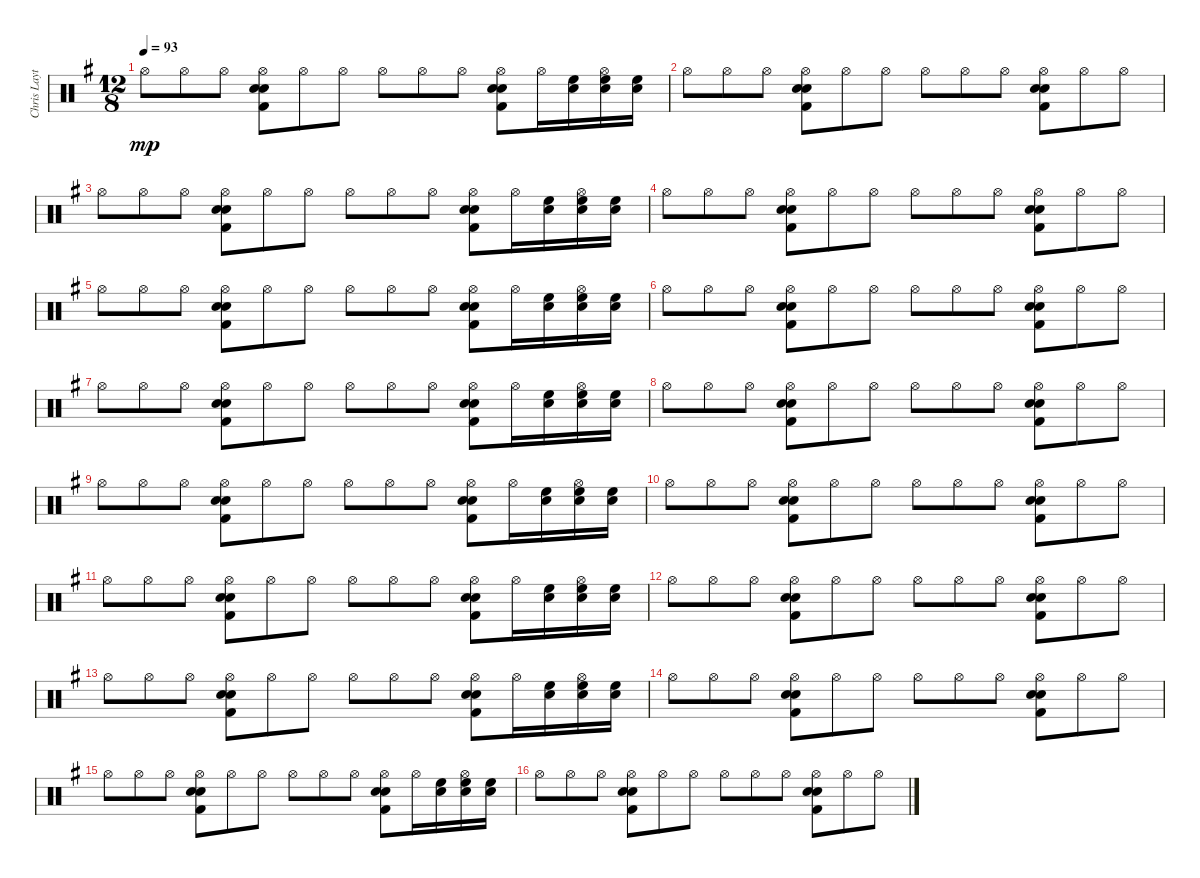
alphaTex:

\track ("Chris Layton" "Chris Layt") {instrument percussion}
\staff {score}
\articulation defaults
\ts (12 8)
\tempo 93
\clef neutral
\ks g "Hi-Hat (open)".8{dy mp} "Hi-Hat (open)".8 "Hi-Hat (open)".8
("Electric Snare (hit)" "Electric Snare (hit)" "Kick (hit) 2" "Hi-Hat (open)").8 "Hi-Hat (open)".8 "Hi-Hat (open)".8 "Hi-Hat (open)".8 "Hi-Hat (open)".8 "Hi-Hat (open)".8 ("Kick (hit) 2" "Electric Snare (hit)" "Electric Snare (hit)" "Hi-Hat (open)").8 "Hi-Hat (open)".16 ("Electric Snare (hit)" "High Floor Tom (hit)").16 ("Electric Snare (hit)" "High Floor Tom (hit)" "Hi-Hat (open)").16 ("Electric Snare (hit)" "High Floor Tom (hit)").16 |
"Hi-Hat (open)".8 "Hi-Hat (open)".8 "Hi-Hat (open)".8 ("Electric Snare (hit)" "Electric Snare (hit)" "Kick (hit) 2" "Hi-Hat (open)").8 "Hi-Hat (open)".8 "Hi-Hat (open)".8 "Hi-Hat (open)".8 "Hi-Hat (open)".8 "Hi-Hat (open)".8 ("Kick (hit) 2" "Electric Snare (hit)" "Electric Snare (hit)" "Hi-Hat (open)").8 "Hi-Hat (open)".8 "Hi-Hat (open)".8 |
"Hi-Hat (open)".8 "Hi-Hat (open)".8 "Hi-Hat (open)".8 ("Electric Snare (hit)" "Electric Snare (hit)" "Kick (hit) 2" "Hi-Hat (open)").8 "Hi-Hat (open)".8 "Hi-Hat (open)".8 "Hi-Hat (open)".8 "Hi-Hat (open)".8 "Hi-Hat (open)".8 ("Kick (hit) 2" "Electric Snare (hit)" "Electric Snare (hit)" "Hi-Hat (open)").8 "Hi-Hat (open)".16 ("Electric Snare (hit)" "High Floor Tom (hit)").16 ("Electric Snare (hit)" "High Floor Tom (hit)" "Hi-Hat (open)").16 ("Electric Snare (hit)" "High Floor Tom (hit)").16 |
"Hi-Hat (open)".8 "Hi-Hat (open)".8 "Hi-Hat (open)".8 ("Electric Snare (hit)" "Electric Snare (hit)" "Kick (hit) 2" "Hi-Hat (open)").8 "Hi-Hat (open)".8 "Hi-Hat (open)".8 "Hi-Hat (open)".8 "Hi-Hat (open)".8 "Hi-Hat (open)".8 ("Kick (hit) 2" "Electric Snare (hit)" "Electric Snare (hit)" "Hi-Hat (open)").8 "Hi-Hat (open)".8 "Hi-Hat (open)".8 |
"Hi-Hat (open)".8 "Hi-Hat (open)".8 "Hi-Hat (open)".8 ("Electric Snare (hit)" "Electric Snare (hit)" "Kick (hit) 2" "Hi-Hat (open)").8 "Hi-Hat (open)".8 "Hi-Hat (open)".8 "Hi-Hat (open)".8 "Hi-Hat (open)".8 "Hi-Hat (open)".8 ("Kick (hit) 2" "Electric Snare (hit)" "Electric Snare (hit)" "Hi-Hat (open)").8 "Hi-Hat (open)".16 ("Electric Snare (hit)" "High Floor Tom (hit)").16 ("Electric Snare (hit)" "High Floor Tom (hit)" "Hi-Hat (open)").16 ("Electric Snare (hit)" "High Floor Tom (hit)").16 |
"Hi-Hat (open)".8 "Hi-Hat (open)".8 "Hi-Hat (open)".8 ("Electric Snare (hit)" "Electric Snare (hit)" "Kick (hit) 2" "Hi-Hat (open)").8 "Hi-Hat (open)".8 "Hi-Hat (open)".8 "Hi-Hat (open)".8 "Hi-Hat (open)".8 "Hi-Hat (open)".8 ("Kick (hit) 2" "Electric Snare (hit)" "Electric Snare (hit)" "Hi-Hat (open)").8 "Hi-Hat (open)".8 "Hi-Hat (open)".8 |
"Hi-Hat (open)".8 "Hi-Hat (open)".8 "Hi-Hat (open)".8 ("Electric Snare (hit)" "Electric Snare (hit)" "Kick (hit) 2" "Hi-Hat (open)").8 "Hi-Hat (open)".8 "Hi-Hat (open)".8 "Hi-Hat (open)".8 "Hi-Hat (open)".8 "Hi-Hat (open)".8 ("Kick (hit) 2" "Electric Snare (hit)" "Electric Snare (hit)" "Hi-Hat (open)").8 "Hi-Hat (open)".16 ("Electric Snare (hit)" "High Floor Tom (hit)").16 ("Electric Snare (hit)" "High Floor Tom (hit)" "Hi-Hat (open)").16 ("Electric Snare (hit)" "High Floor Tom (hit)").16 |
"Hi-Hat (open)".8 "Hi-Hat (open)".8 "Hi-Hat (open)".8 ("Electric Snare (hit)" "Electric Snare (hit)" "Kick (hit) 2" "Hi-Hat (open)").8 "Hi-Hat (open)".8 "Hi-Hat (open)".8 "Hi-Hat (open)".8 "Hi-Hat (open)".8 "Hi-Hat (open)".8 ("Kick (hit) 2" "Electric Snare (hit)" "Electric Snare (hit)" "Hi-Hat (open)").8 "Hi-Hat (open)".8 "Hi-Hat (open)".8 |
"Hi-Hat (open)".8 "Hi-Hat (open)".8 "Hi-Hat (open)".8 ("Electric Snare (hit)" "Electric Snare (hit)" "Kick (hit) 2" "Hi-Hat (open)").8 "Hi-Hat (open)".8 "Hi-Hat (open)".8 "Hi-Hat (open)".8 "Hi-Hat (open)".8 "Hi-Hat (open)".8 ("Kick (hit) 2" "Electric Snare (hit)" "Electric Snare (hit)" "Hi-Hat (open)").8 "Hi-Hat (open)".16 ("Electric Snare (hit)" "High Floor Tom (hit)").16 ("Electric Snare (hit)" "High Floor Tom (hit)" "Hi-Hat (open)").16 ("Electric Snare (hit)" "High Floor Tom (hit)").16 |
"Hi-Hat (open)".8 "Hi-Hat (open)".8 "Hi-Hat (open)".8 ("Electric Snare (hit)" "Electric Snare (hit)" "Kick (hit) 2" "Hi-Hat (open)").8 "Hi-Hat (open)".8 "Hi-Hat (open)".8 "Hi-Hat (open)".8 "Hi-Hat (open)".8 "Hi-Hat (open)".8 ("Kick (hit) 2" "Electric Snare (hit)" "Electric Snare (hit)" "Hi-Hat (open)").8 "Hi-Hat (open)".8 "Hi-Hat (open)".8 |
"Hi-Hat (open)".8 "Hi-Hat (open)".8 "Hi-Hat (open)".8 ("Electric Snare (hit)" "Electric Snare (hit)" "Kick (hit) 2" "Hi-Hat (open)").8 "Hi-Hat (open)".8 "Hi-Hat (open)".8 "Hi-Hat (open)".8 "Hi-Hat (open)".8 "Hi-Hat (open)".8 ("Kick (hit) 2" "Electric Snare (hit)" "Electric Snare (hit)" "Hi-Hat (open)").8 "Hi-Hat (open)".16 ("Electric Snare (hit)" "High Floor Tom (hit)").16 ("Electric Snare (hit)" "High Floor Tom (hit)" "Hi-Hat (open)").16 ("Electric Snare (hit)" "High Floor Tom (hit)").16 |
"Hi-Hat (open)".8 "Hi-Hat (open)".8 "Hi-Hat (open)".8 ("Electric Snare (hit)" "Electric Snare (hit)" "Kick (hit) 2" "Hi-Hat (open)").8 "Hi-Hat (open)".8 "Hi-Hat (open)".8 "Hi-Hat (open)".8 "Hi-Hat (open)".8 "Hi-Hat (open)".8 ("Kick (hit) 2" "Electric Snare (hit)" "Electric Snare (hit)" "Hi-Hat (open)").8 "Hi-Hat (open)".8 "Hi-Hat (open)".8 |
"Hi-Hat (open)".8 "Hi-Hat (open)".8 "Hi-Hat (open)".8 ("Electric Snare (hit)" "Electric Snare (hit)" "Kick (hit) 2" "Hi-Hat (open)").8 "Hi-Hat (open)".8 "Hi-Hat (open)".8 "Hi-Hat (open)".8 "Hi-Hat (open)".8 "Hi-Hat (open)".8 ("Kick (hit) 2" "Electric Snare (hit)" "Electric Snare (hit)" "Hi-Hat (open)").8 "Hi-Hat (open)".16 ("Electric Snare (hit)" "High Floor Tom (hit)").16 ("Electric Snare (hit)" "High Floor Tom (hit)" "Hi-Hat (open)").16 ("Electric Snare (hit)" "High Floor Tom (hit)").16 |
"Hi-Hat (open)".8 "Hi-Hat (open)".8 "Hi-Hat (open)".8 ("Electric Snare (hit)" "Electric Snare (hit)" "Kick (hit) 2" "Hi-Hat (open)").8 "Hi-Hat (open)".8 "Hi-Hat (open)".8 "Hi-Hat (open)".8 "Hi-Hat (open)".8 "Hi-Hat (open)".8 ("Kick (hit) 2" "Electric Snare (hit)" "Electric Snare (hit)" "Hi-Hat (open)").8 "Hi-Hat (open)".8 "Hi-Hat (open)".8 |
"Hi-Hat (open)".8 "Hi-Hat (open)".8 "Hi-Hat (open)".8 ("Electric Snare (hit)" "Electric Snare (hit)" "Kick (hit) 2" "Hi-Hat (open)").8 "Hi-Hat (open)".8 "Hi-Hat (open)".8 "Hi-Hat (open)".8 "Hi-Hat (open)".8 "Hi-Hat (open)".8 ("Kick (hit) 2" "Electric Snare (hit)" "Electric Snare (hit)" "Hi-Hat (open)").8 "Hi-Hat (open)".16 ("Electric Snare (hit)" "High Floor Tom (hit)").16 ("Electric Snare (hit)" "High Floor Tom (hit)" "Hi-Hat (open)").16 ("Electric Snare (hit)" "High Floor Tom (hit)").16 |
"Hi-Hat (open)".8 "Hi-Hat (open)".8 "Hi-Hat (open)".8 ("Electric Snare (hit)" "Electric Snare (hit)" "Kick (hit) 2" "Hi-Hat (open)").8 "Hi-Hat (open)".8 "Hi-Hat (open)".8 "Hi-Hat (open)".8 "Hi-Hat (open)".8 "Hi-Hat (open)".8 ("Kick (hit) 2" "Electric Snare (hit)" "Electric Snare (hit)" "Hi-Hat (open)").8 "Hi-Hat (open)".8 "Hi-Hat (open)".8
